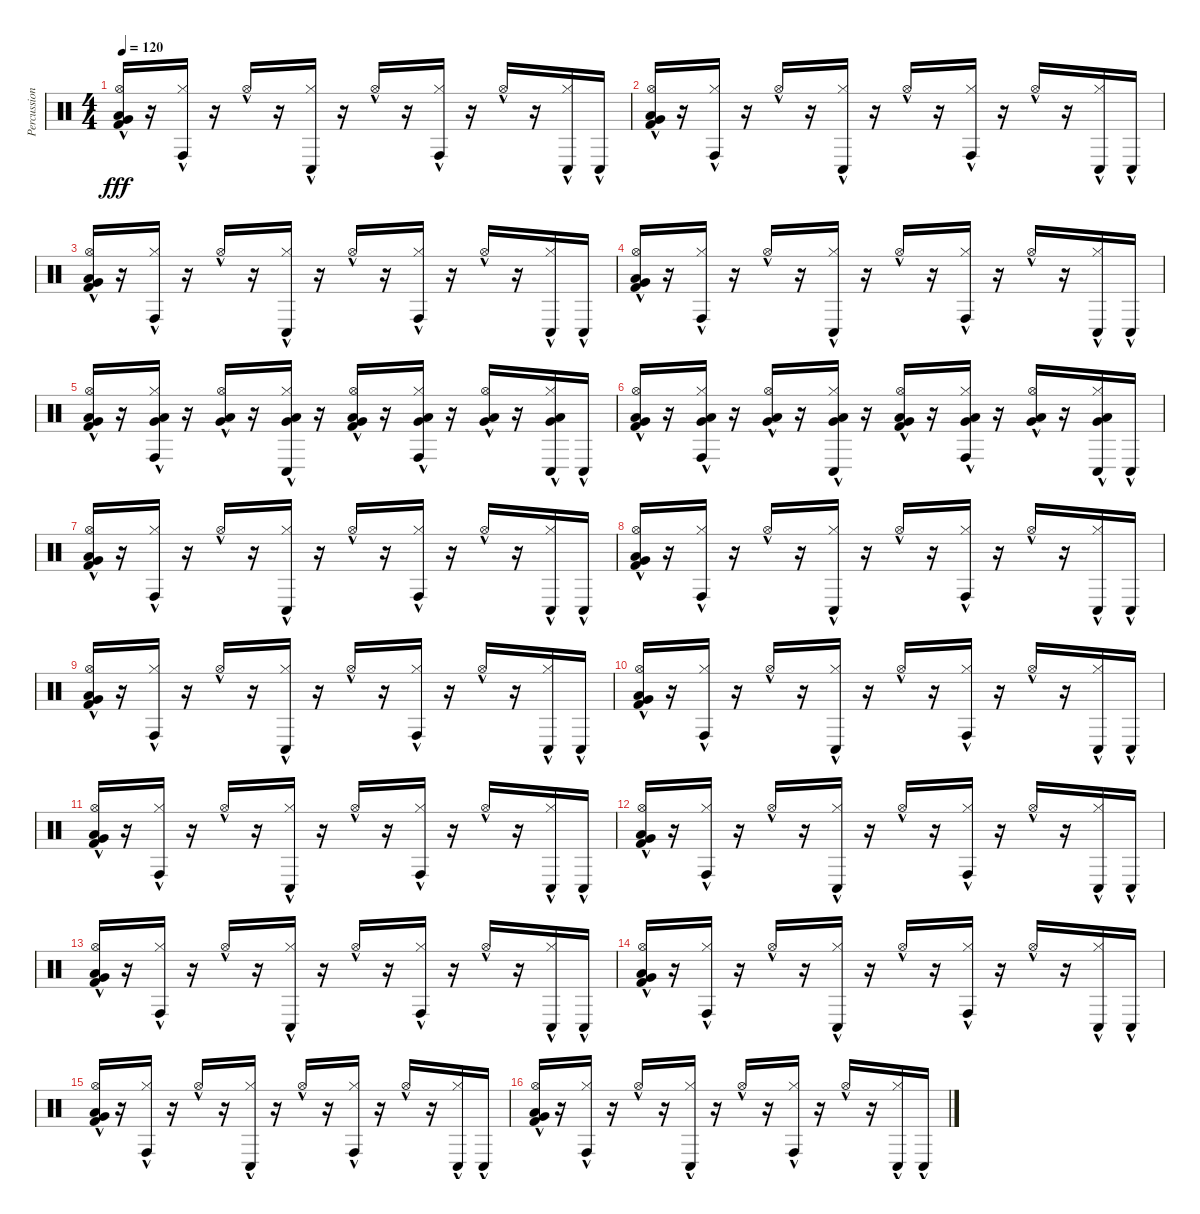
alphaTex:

\track ("Percussion" "Percussion") {instrument percussion}
\staff {score}
\articulation defaults
\ts (4 4)
\tempo 120
\clef neutral
\ks c
("Hi-Hat (open)"{hac} "Very Low Tom (hit)"{hac} "Low Floor Tom (hit)"{hac} "Kick (hit) 2"{hac}).16{dy fff} r.16 ("Hi-Hat (closed)"{hac} "Conga high (hit)"{hac}).16 r.16 "Hi-Hat (open)"{hac}.16 r.16 ("Hi-Hat (closed)"{hac} "Conga low (hit)"{hac}).16 r.16 "Hi-Hat (open)"{hac}.16 r.16 ("Hi-Hat (closed)"{hac} "Conga high (hit)"{hac}).16 r.16 "Hi-Hat (open)"{hac}.16 r.16 ("Hi-Hat (closed)"{hac} "Conga low (hit)"{hac}).16 "Conga low (hit)"{hac}.16 |
("Hi-Hat (open)"{hac} "Very Low Tom (hit)"{hac} "Low Floor Tom (hit)"{hac} "Kick (hit) 2"{hac}).16 r.16 ("Hi-Hat (closed)"{hac} "Conga high (hit)"{hac}).16 r.16 "Hi-Hat (open)"{hac}.16 r.16 ("Hi-Hat (closed)"{hac} "Conga low (hit)"{hac}).16 r.16 "Hi-Hat (open)"{hac}.16 r.16 ("Hi-Hat (closed)"{hac} "Conga high (hit)"{hac}).16 r.16 "Hi-Hat (open)"{hac}.16 r.16 ("Hi-Hat (closed)"{hac} "Conga low (hit)"{hac}).16 "Conga low (hit)"{hac}.16 |
("Hi-Hat (open)"{hac} "Very Low Tom (hit)"{hac} "Low Floor Tom (hit)"{hac} "Kick (hit) 2"{hac}).16 r.16 ("Hi-Hat (closed)"{hac} "Conga high (hit)"{hac}).16 r.16 "Hi-Hat (open)"{hac}.16 r.16 ("Hi-Hat (closed)"{hac} "Conga low (hit)"{hac}).16 r.16 "Hi-Hat (open)"{hac}.16 r.16 ("Hi-Hat (closed)"{hac} "Conga high (hit)"{hac}).16 r.16 "Hi-Hat (open)"{hac}.16 r.16 ("Hi-Hat (closed)"{hac} "Conga low (hit)"{hac}).16 "Conga low (hit)"{hac}.16 |
("Hi-Hat (open)"{hac} "Very Low Tom (hit)"{hac} "Low Floor Tom (hit)"{hac} "Kick (hit) 2"{hac}).16 r.16 ("Hi-Hat (closed)"{hac} "Conga high (hit)"{hac}).16 r.16 "Hi-Hat (open)"{hac}.16 r.16 ("Hi-Hat (closed)"{hac} "Conga low (hit)"{hac}).16 r.16 "Hi-Hat (open)"{hac}.16 r.16 ("Hi-Hat (closed)"{hac} "Conga high (hit)"{hac}).16 r.16 "Hi-Hat (open)"{hac}.16 r.16 ("Hi-Hat (closed)"{hac} "Conga low (hit)"{hac}).16 "Conga low (hit)"{hac}.16 |
("Hi-Hat (open)"{hac} "Very Low Tom (hit)"{hac} "Low Floor Tom (hit)"{hac} "Kick (hit) 2"{hac}).16 r.16 ("Hi-Hat (closed)"{hac} "Very Low Tom (hit)"{hac} "Conga high (hit)"{hac} "Low Floor Tom (hit)"{hac}).16 r.16 ("Hi-Hat (open)"{hac} "Very Low Tom (hit)"{hac} "Low Floor Tom (hit)"{hac}).16 r.16 ("Hi-Hat (closed)"{hac} "Very Low Tom (hit)"{hac} "Conga low (hit)"{hac} "Low Floor Tom (hit)"{hac}).16 r.16 ("Hi-Hat (open)"{hac} "Very Low Tom (hit)"{hac} "Low Floor Tom (hit)"{hac} "Kick (hit) 2"{hac}).16 r.16 ("Hi-Hat (closed)"{hac} "Very Low Tom (hit)"{hac} "Conga high (hit)"{hac} "Low Floor Tom (hit)"{hac}).16 r.16 ("Hi-Hat (open)"{hac} "Very Low Tom (hit)"{hac} "Low Floor Tom (hit)"{hac}).16 r.16 ("Hi-Hat (closed)"{hac} "Very Low Tom (hit)"{hac} "Conga low (hit)"{hac} "Low Floor Tom (hit)"{hac}).16 "Conga low (hit)"{hac}.16 |
("Hi-Hat (open)"{hac} "Very Low Tom (hit)"{hac} "Low Floor Tom (hit)"{hac} "Kick (hit) 2"{hac}).16 r.16 ("Hi-Hat (closed)"{hac} "Very Low Tom (hit)"{hac} "Conga high (hit)"{hac} "Low Floor Tom (hit)"{hac}).16 r.16 ("Hi-Hat (open)"{hac} "Very Low Tom (hit)"{hac} "Low Floor Tom (hit)"{hac}).16 r.16 ("Hi-Hat (closed)"{hac} "Very Low Tom (hit)"{hac} "Conga low (hit)"{hac} "Low Floor Tom (hit)"{hac}).16 r.16 ("Hi-Hat (open)"{hac} "Very Low Tom (hit)"{hac} "Low Floor Tom (hit)"{hac} "Kick (hit) 2"{hac}).16 r.16 ("Hi-Hat (closed)"{hac} "Very Low Tom (hit)"{hac} "Conga high (hit)"{hac} "Low Floor Tom (hit)"{hac}).16 r.16 ("Hi-Hat (open)"{hac} "Very Low Tom (hit)"{hac} "Low Floor Tom (hit)"{hac}).16 r.16 ("Hi-Hat (closed)"{hac} "Very Low Tom (hit)"{hac} "Conga low (hit)"{hac} "Low Floor Tom (hit)"{hac}).16 "Conga low (hit)"{hac}.16 |
("Hi-Hat (open)"{hac} "Very Low Tom (hit)"{hac} "Low Floor Tom (hit)"{hac} "Kick (hit) 2"{hac}).16 r.16 ("Hi-Hat (closed)"{hac} "Conga high (hit)"{hac}).16 r.16 "Hi-Hat (open)"{hac}.16 r.16 ("Hi-Hat (closed)"{hac} "Conga low (hit)"{hac}).16 r.16 "Hi-Hat (open)"{hac}.16 r.16 ("Hi-Hat (closed)"{hac} "Conga high (hit)"{hac}).16 r.16 "Hi-Hat (open)"{hac}.16 r.16 ("Hi-Hat (closed)"{hac} "Conga low (hit)"{hac}).16 "Conga low (hit)"{hac}.16 |
("Hi-Hat (open)"{hac} "Very Low Tom (hit)"{hac} "Low Floor Tom (hit)"{hac} "Kick (hit) 2"{hac}).16 r.16 ("Hi-Hat (closed)"{hac} "Conga high (hit)"{hac}).16 r.16 "Hi-Hat (open)"{hac}.16 r.16 ("Hi-Hat (closed)"{hac} "Conga low (hit)"{hac}).16 r.16 "Hi-Hat (open)"{hac}.16 r.16 ("Hi-Hat (closed)"{hac} "Conga high (hit)"{hac}).16 r.16 "Hi-Hat (open)"{hac}.16 r.16 ("Hi-Hat (closed)"{hac} "Conga low (hit)"{hac}).16 "Conga low (hit)"{hac}.16 |
("Hi-Hat (open)"{hac} "Very Low Tom (hit)"{hac} "Low Floor Tom (hit)"{hac} "Kick (hit) 2"{hac}).16 r.16 ("Hi-Hat (closed)"{hac} "Conga high (hit)"{hac}).16 r.16 "Hi-Hat (open)"{hac}.16 r.16 ("Hi-Hat (closed)"{hac} "Conga low (hit)"{hac}).16 r.16 "Hi-Hat (open)"{hac}.16 r.16 ("Hi-Hat (closed)"{hac} "Conga high (hit)"{hac}).16 r.16 "Hi-Hat (open)"{hac}.16 r.16 ("Hi-Hat (closed)"{hac} "Conga low (hit)"{hac}).16 "Conga low (hit)"{hac}.16 |
("Hi-Hat (open)"{hac} "Very Low Tom (hit)"{hac} "Low Floor Tom (hit)"{hac} "Kick (hit) 2"{hac}).16 r.16 ("Hi-Hat (closed)"{hac} "Conga high (hit)"{hac}).16 r.16 "Hi-Hat (open)"{hac}.16 r.16 ("Hi-Hat (closed)"{hac} "Conga low (hit)"{hac}).16 r.16 "Hi-Hat (open)"{hac}.16 r.16 ("Hi-Hat (closed)"{hac} "Conga high (hit)"{hac}).16 r.16 "Hi-Hat (open)"{hac}.16 r.16 ("Hi-Hat (closed)"{hac} "Conga low (hit)"{hac}).16 "Conga low (hit)"{hac}.16 |
("Hi-Hat (open)"{hac} "Very Low Tom (hit)"{hac} "Low Floor Tom (hit)"{hac} "Kick (hit) 2"{hac}).16 r.16 ("Hi-Hat (closed)"{hac} "Conga high (hit)"{hac}).16 r.16 "Hi-Hat (open)"{hac}.16 r.16 ("Hi-Hat (closed)"{hac} "Conga low (hit)"{hac}).16 r.16 "Hi-Hat (open)"{hac}.16 r.16 ("Hi-Hat (closed)"{hac} "Conga high (hit)"{hac}).16 r.16 "Hi-Hat (open)"{hac}.16 r.16 ("Hi-Hat (closed)"{hac} "Conga low (hit)"{hac}).16 "Conga low (hit)"{hac}.16 |
("Hi-Hat (open)"{hac} "Very Low Tom (hit)"{hac} "Low Floor Tom (hit)"{hac} "Kick (hit) 2"{hac}).16 r.16 ("Hi-Hat (closed)"{hac} "Conga high (hit)"{hac}).16 r.16 "Hi-Hat (open)"{hac}.16 r.16 ("Hi-Hat (closed)"{hac} "Conga low (hit)"{hac}).16 r.16 "Hi-Hat (open)"{hac}.16 r.16 ("Hi-Hat (closed)"{hac} "Conga high (hit)"{hac}).16 r.16 "Hi-Hat (open)"{hac}.16 r.16 ("Hi-Hat (closed)"{hac} "Conga low (hit)"{hac}).16 "Conga low (hit)"{hac}.16 |
("Hi-Hat (open)"{hac} "Very Low Tom (hit)"{hac} "Low Floor Tom (hit)"{hac} "Kick (hit) 2"{hac}).16 r.16 ("Hi-Hat (closed)"{hac} "Conga high (hit)"{hac}).16 r.16 "Hi-Hat (open)"{hac}.16 r.16 ("Hi-Hat (closed)"{hac} "Conga low (hit)"{hac}).16 r.16 "Hi-Hat (open)"{hac}.16 r.16 ("Hi-Hat (closed)"{hac} "Conga high (hit)"{hac}).16 r.16 "Hi-Hat (open)"{hac}.16 r.16 ("Hi-Hat (closed)"{hac} "Conga low (hit)"{hac}).16 "Conga low (hit)"{hac}.16 |
("Hi-Hat (open)"{hac} "Very Low Tom (hit)"{hac} "Low Floor Tom (hit)"{hac} "Kick (hit) 2"{hac}).16 r.16 ("Hi-Hat (closed)"{hac} "Conga high (hit)"{hac}).16 r.16 "Hi-Hat (open)"{hac}.16 r.16 ("Hi-Hat (closed)"{hac} "Conga low (hit)"{hac}).16 r.16 "Hi-Hat (open)"{hac}.16 r.16 ("Hi-Hat (closed)"{hac} "Conga high (hit)"{hac}).16 r.16 "Hi-Hat (open)"{hac}.16 r.16 ("Hi-Hat (closed)"{hac} "Conga low (hit)"{hac}).16 "Conga low (hit)"{hac}.16 |
("Hi-Hat (open)"{hac} "Very Low Tom (hit)"{hac} "Low Floor Tom (hit)"{hac} "Kick (hit) 2"{hac}).16 r.16 ("Hi-Hat (closed)"{hac} "Conga high (hit)"{hac}).16 r.16 "Hi-Hat (open)"{hac}.16 r.16 ("Hi-Hat (closed)"{hac} "Conga low (hit)"{hac}).16 r.16 "Hi-Hat (open)"{hac}.16 r.16 ("Hi-Hat (closed)"{hac} "Conga high (hit)"{hac}).16 r.16 "Hi-Hat (open)"{hac}.16 r.16 ("Hi-Hat (closed)"{hac} "Conga low (hit)"{hac}).16 "Conga low (hit)"{hac}.16 |
("Hi-Hat (open)"{hac} "Very Low Tom (hit)"{hac} "Low Floor Tom (hit)"{hac} "Kick (hit) 2"{hac}).16 r.16 ("Hi-Hat (closed)"{hac} "Conga high (hit)"{hac}).16 r.16 "Hi-Hat (open)"{hac}.16 r.16 ("Hi-Hat (closed)"{hac} "Conga low (hit)"{hac}).16 r.16 "Hi-Hat (open)"{hac}.16 r.16 ("Hi-Hat (closed)"{hac} "Conga high (hit)"{hac}).16 r.16 "Hi-Hat (open)"{hac}.16 r.16 ("Hi-Hat (closed)"{hac} "Conga low (hit)"{hac}).16 "Conga low (hit)"{hac}.16
